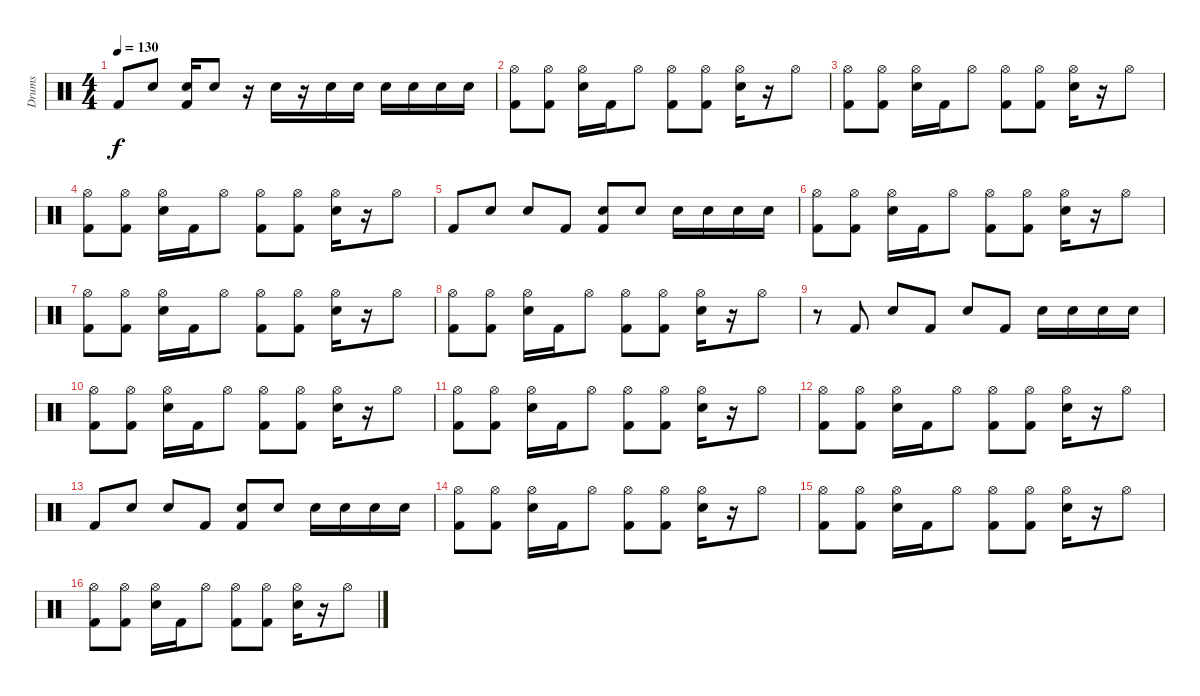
\track ("Drums" "Drums") {instrument percussion}
\staff {score}
\articulation defaults
\ts (4 4)
\tempo 130
\clef neutral
\ks c "Kick (hit) 2".8{dy f} "Snare (hit) 2".8
("Snare (hit) 2" "Kick (hit) 2").16 "Snare (hit) 2".8 r.16 "Snare (hit) 2".16 r.16 "Snare (hit) 2".16 "Snare (hit) 2".16 "Snare (hit) 2".16 "Snare (hit) 2".16 "Snare (hit) 2".16 "Snare (hit) 2".16 |
("Hi-Hat (open)" "Kick (hit) 2").8 ("Hi-Hat (open)" "Kick (hit) 2").8 ("Hi-Hat (open)" "Snare (hit) 2").16 "Kick (hit) 2".16 "Hi-Hat (open)".8 ("Hi-Hat (open)" "Kick (hit) 2").8 ("Hi-Hat (open)" "Kick (hit) 2").8 ("Hi-Hat (open)" "Snare (hit) 2").16 r.16 "Hi-Hat (open)".8 |
("Hi-Hat (open)" "Kick (hit) 2").8 ("Hi-Hat (open)" "Kick (hit) 2").8 ("Hi-Hat (open)" "Snare (hit) 2").16 "Kick (hit) 2".16 "Hi-Hat (open)".8 ("Hi-Hat (open)" "Kick (hit) 2").8 ("Hi-Hat (open)" "Kick (hit) 2").8 ("Hi-Hat (open)" "Snare (hit) 2").16 r.16 "Hi-Hat (open)".8 |
("Hi-Hat (open)" "Kick (hit) 2").8 ("Hi-Hat (open)" "Kick (hit) 2").8 ("Hi-Hat (open)" "Snare (hit) 2").16 "Kick (hit) 2".16 "Hi-Hat (open)".8 ("Hi-Hat (open)" "Kick (hit) 2").8 ("Hi-Hat (open)" "Kick (hit) 2").8 ("Hi-Hat (open)" "Snare (hit) 2").16 r.16 "Hi-Hat (open)".8 |
"Kick (hit) 2".8 "Snare (hit) 2".8 "Snare (hit) 2".8 "Kick (hit) 2".8 ("Snare (hit) 2" "Kick (hit) 2").8 "Snare (hit) 2".8 "Snare (hit) 2".16 "Snare (hit) 2".16 "Snare (hit) 2".16 "Snare (hit) 2".16 |
("Hi-Hat (open)" "Kick (hit) 2").8 ("Hi-Hat (open)" "Kick (hit) 2").8 ("Hi-Hat (open)" "Snare (hit) 2").16 "Kick (hit) 2".16 "Hi-Hat (open)".8 ("Hi-Hat (open)" "Kick (hit) 2").8 ("Hi-Hat (open)" "Kick (hit) 2").8 ("Hi-Hat (open)" "Snare (hit) 2").16 r.16 "Hi-Hat (open)".8 |
("Hi-Hat (open)" "Kick (hit) 2").8 ("Hi-Hat (open)" "Kick (hit) 2").8 ("Hi-Hat (open)" "Snare (hit) 2").16 "Kick (hit) 2".16 "Hi-Hat (open)".8 ("Hi-Hat (open)" "Kick (hit) 2").8 ("Hi-Hat (open)" "Kick (hit) 2").8 ("Hi-Hat (open)" "Snare (hit) 2").16 r.16 "Hi-Hat (open)".8 |
("Hi-Hat (open)" "Kick (hit) 2").8 ("Hi-Hat (open)" "Kick (hit) 2").8 ("Hi-Hat (open)" "Snare (hit) 2").16 "Kick (hit) 2".16 "Hi-Hat (open)".8 ("Hi-Hat (open)" "Kick (hit) 2").8 ("Hi-Hat (open)" "Kick (hit) 2").8 ("Hi-Hat (open)" "Snare (hit) 2").16 r.16 "Hi-Hat (open)".8 |
r.8 "Kick (hit) 2".8 "Snare (hit) 2".8 "Kick (hit) 2".8 "Snare (hit) 2".8 "Kick (hit) 2".8 "Snare (hit) 2".16 "Snare (hit) 2".16 "Snare (hit) 2".16 "Snare (hit) 2".16 |
("Hi-Hat (open)" "Kick (hit) 2").8 ("Hi-Hat (open)" "Kick (hit) 2").8 ("Hi-Hat (open)" "Snare (hit) 2").16 "Kick (hit) 2".16 "Hi-Hat (open)".8 ("Hi-Hat (open)" "Kick (hit) 2").8 ("Hi-Hat (open)" "Kick (hit) 2").8 ("Hi-Hat (open)" "Snare (hit) 2").16 r.16 "Hi-Hat (open)".8 |
("Hi-Hat (open)" "Kick (hit) 2").8 ("Hi-Hat (open)" "Kick (hit) 2").8 ("Hi-Hat (open)" "Snare (hit) 2").16 "Kick (hit) 2".16 "Hi-Hat (open)".8 ("Hi-Hat (open)" "Kick (hit) 2").8 ("Hi-Hat (open)" "Kick (hit) 2").8 ("Hi-Hat (open)" "Snare (hit) 2").16 r.16 "Hi-Hat (open)".8 |
("Hi-Hat (open)" "Kick (hit) 2").8 ("Hi-Hat (open)" "Kick (hit) 2").8 ("Hi-Hat (open)" "Snare (hit) 2").16 "Kick (hit) 2".16 "Hi-Hat (open)".8 ("Hi-Hat (open)" "Kick (hit) 2").8 ("Hi-Hat (open)" "Kick (hit) 2").8 ("Hi-Hat (open)" "Snare (hit) 2").16 r.16 "Hi-Hat (open)".8 |
"Kick (hit) 2".8 "Snare (hit) 2".8 "Snare (hit) 2".8 "Kick (hit) 2".8 ("Snare (hit) 2" "Kick (hit) 2").8 "Snare (hit) 2".8 "Snare (hit) 2".16 "Snare (hit) 2".16 "Snare (hit) 2".16 "Snare (hit) 2".16 |
("Hi-Hat (open)" "Kick (hit) 2").8 ("Hi-Hat (open)" "Kick (hit) 2").8 ("Hi-Hat (open)" "Snare (hit) 2").16 "Kick (hit) 2".16 "Hi-Hat (open)".8 ("Hi-Hat (open)" "Kick (hit) 2").8 ("Hi-Hat (open)" "Kick (hit) 2").8 ("Hi-Hat (open)" "Snare (hit) 2").16 r.16 "Hi-Hat (open)".8 |
("Hi-Hat (open)" "Kick (hit) 2").8 ("Hi-Hat (open)" "Kick (hit) 2").8 ("Hi-Hat (open)" "Snare (hit) 2").16 "Kick (hit) 2".16 "Hi-Hat (open)".8 ("Hi-Hat (open)" "Kick (hit) 2").8 ("Hi-Hat (open)" "Kick (hit) 2").8 ("Hi-Hat (open)" "Snare (hit) 2").16 r.16 "Hi-Hat (open)".8 |
("Hi-Hat (open)" "Kick (hit) 2").8 ("Hi-Hat (open)" "Kick (hit) 2").8 ("Hi-Hat (open)" "Snare (hit) 2").16 "Kick (hit) 2".16 "Hi-Hat (open)".8 ("Hi-Hat (open)" "Kick (hit) 2").8 ("Hi-Hat (open)" "Kick (hit) 2").8 ("Hi-Hat (open)" "Snare (hit) 2").16 r.16 "Hi-Hat (open)".8
